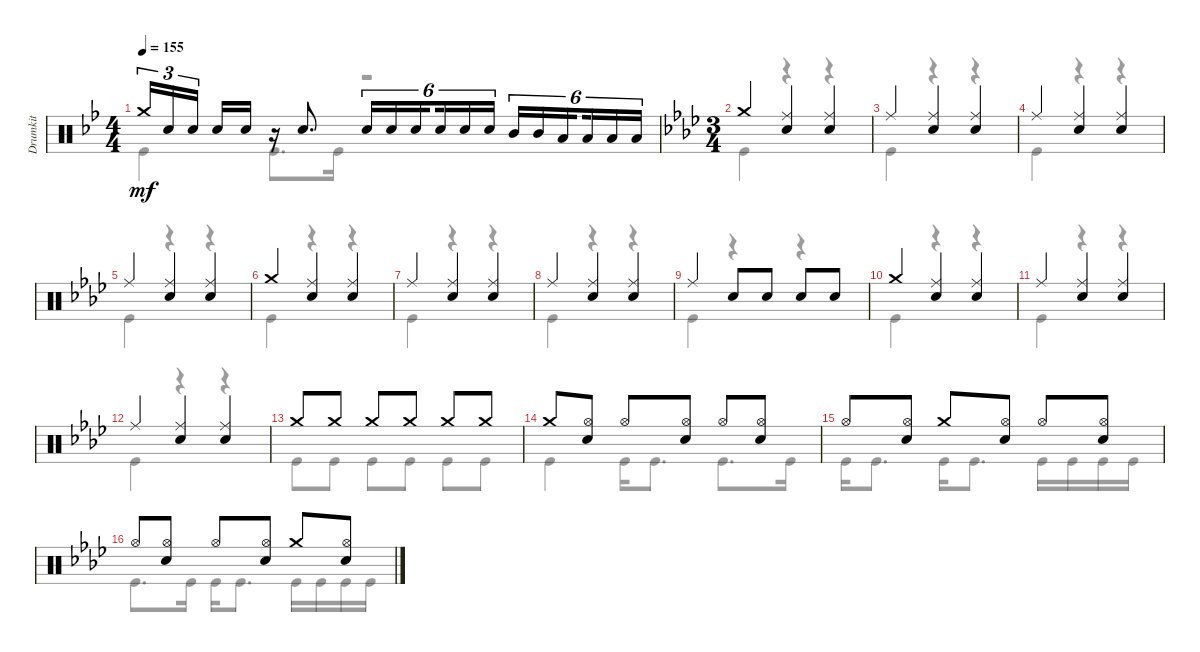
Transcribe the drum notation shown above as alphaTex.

\track ("Drumkit" "Drumkit") {instrument percussion}
\staff {score}
\articulation defaults
\voice
\ts (4 4)
\tempo 155
\clef neutral
\ks bb "Crash medium (hit)".16{tu (3 2) dy mf} "Snare (hit) 2".16{tu (3 2)} "Snare (hit) 2".16{tu (3 2) beam splitsecondary} "Snare (hit) 2".16 "Snare (hit) 2".16
r.16 "Snare (hit) 2".8{d} "Snare (hit) 2".16{tu (6 4)} "Snare (hit) 2".16{tu (6 4)} "Snare (hit) 2".16{tu (6 4) beam splitsecondary} "Snare (hit) 2".16{tu (6 4)} "Snare (hit) 2".16{tu (6 4)} "Snare (hit) 2".16{tu (6 4)} "Mid Tom (hit)".16{tu (6 4)} "Mid Tom (hit)".16{tu (6 4)} "Low Tom (hit)".16{tu (6 4) beam splitsecondary} "Low Tom (hit)".16{tu (6 4)} "Low Tom (hit)".16{tu (6 4)} "Low Tom (hit)".16{tu (6 4)} |
\ts (3 4)
\ks ab "Crash medium (hit)".4
("Ride (middle)" "Snare (hit) 2").4 ("Ride (middle)" "Snare (hit) 2").4 |
"Ride (middle)".4 ("Ride (middle)" "Snare (hit) 2").4 ("Ride (middle)" "Snare (hit) 2").4 |
"Ride (middle)".4 ("Ride (middle)" "Snare (hit) 2").4 ("Ride (middle)" "Snare (hit) 2").4 |
"Ride (middle)".4 ("Ride (middle)" "Snare (hit) 2").4 ("Ride (middle)" "Snare (hit) 2").4 |
"Crash medium (hit)".4 ("Ride (middle)" "Snare (hit) 2").4 ("Ride (middle)" "Snare (hit) 2").4 |
"Ride (middle)".4 ("Ride (middle)" "Snare (hit) 2").4 ("Ride (middle)" "Snare (hit) 2").4 |
"Ride (middle)".4 ("Ride (middle)" "Snare (hit) 2").4 ("Ride (middle)" "Snare (hit) 2").4 |
"Ride (middle)".4 "Snare (hit) 2".8 "Snare (hit) 2".8 "Snare (hit) 2".8 "Snare (hit) 2".8 |
"Crash medium (hit)".4 ("Ride (middle)" "Snare (hit) 2").4 ("Ride (middle)" "Snare (hit) 2").4 |
"Ride (middle)".4 ("Ride (middle)" "Snare (hit) 2").4 ("Ride (middle)" "Snare (hit) 2").4 |
"Ride (middle)".4 ("Ride (middle)" "Snare (hit) 2").4 ("Ride (middle)" "Snare (hit) 2").4 |
"Crash medium (hit)".8 "Crash medium (hit)".8 "Crash medium (hit)".8 "Crash medium (hit)".8 "Crash medium (hit)".8 "Crash medium (hit)".8 |
"Crash medium (hit)".8 ("Hi-Hat (open)" "Snare (hit) 2").8 "Hi-Hat (open)".8 ("Hi-Hat (open)" "Snare (hit) 2").8 "Hi-Hat (open)".8 ("Hi-Hat (open)" "Snare (hit) 2").8 |
"Hi-Hat (open)".8 ("Hi-Hat (open)" "Snare (hit) 2").8 "Crash medium (hit)".8 ("Hi-Hat (open)" "Snare (hit) 2").8 "Hi-Hat (open)".8 ("Hi-Hat (open)" "Snare (hit) 2").8 |
"Hi-Hat (open)".8 ("Hi-Hat (open)" "Snare (hit) 2").8 "Hi-Hat (open)".8 ("Hi-Hat (open)" "Snare (hit) 2").8 "Crash medium (hit)".8 ("Hi-Hat (open)" "Snare (hit) 2").8
\voice
\clef neutral
\ottava regular
\simile none
\ks bb "Kick (hit)".4{dy mf} "Kick (hit)".8{d} "Kick (hit)".16
r.2 |
\ks ab "Kick (hit)".4
r.4 r.4 |
"Kick (hit)".4 r.4 r.4 |
"Kick (hit)".4 r.4 r.4 |
"Kick (hit)".4 r.4 r.4 |
"Kick (hit)".4 r.4 r.4 |
"Kick (hit)".4 r.4 r.4 |
"Kick (hit)".4 r.4 r.4 |
"Kick (hit)".4 r.4 r.4 |
"Kick (hit)".4 r.4 r.4 |
"Kick (hit)".4 r.4 r.4 |
"Kick (hit)".4 r.4 r.4 |
"Kick (hit)".8 "Kick (hit)".8 "Kick (hit)".8 "Kick (hit)".8 "Kick (hit)".8 "Kick (hit)".8 |
"Kick (hit)".4 "Kick (hit)".16 "Kick (hit)".8{d} "Kick (hit)".8{d} "Kick (hit)".16 |
"Kick (hit)".16 "Kick (hit)".8{d} "Kick (hit)".16 "Kick (hit)".8{d} "Kick (hit)".16 "Kick (hit)".16 "Kick (hit)".16 "Kick (hit)".16 |
"Kick (hit)".8{d} "Kick (hit)".16 "Kick (hit)".16 "Kick (hit)".8{d} "Kick (hit)".16 "Kick (hit)".16 "Kick (hit)".16 "Kick (hit)".16
